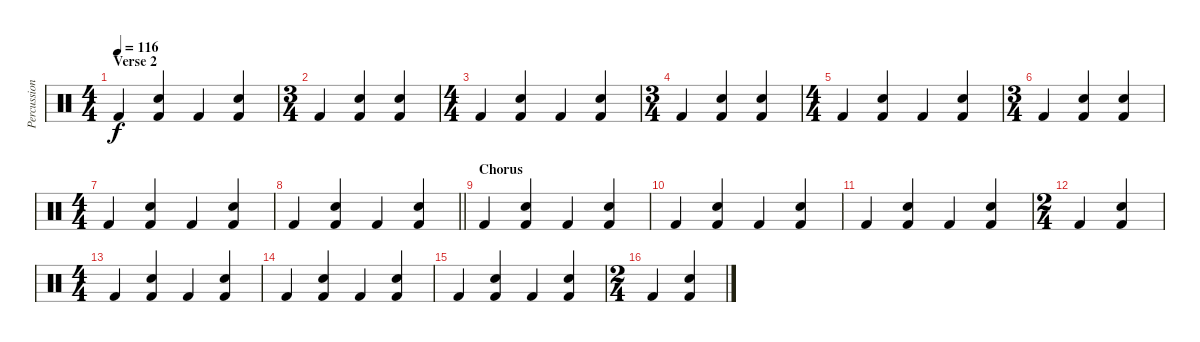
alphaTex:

\track ("Percussion" "Percussion") {instrument percussion}
\staff {score}
\articulation defaults
\ts (4 4)
\section ("" "Verse 2")
\tempo 116
\clef neutral
\ks c "Kick (hit) 2".4{dy f}
("Hand Clap (hit)" "Kick (hit) 2").4 "Kick (hit) 2".4 ("Hand Clap (hit)" "Kick (hit) 2").4 |
\ts (3 4)
"Kick (hit) 2".4 ("Hand Clap (hit)" "Kick (hit) 2").4 ("Hand Clap (hit)" "Kick (hit) 2").4 |
\ts (4 4)
"Kick (hit) 2".4 ("Hand Clap (hit)" "Kick (hit) 2").4 "Kick (hit) 2".4 ("Hand Clap (hit)" "Kick (hit) 2").4 |
\ts (3 4)
"Kick (hit) 2".4 ("Hand Clap (hit)" "Kick (hit) 2").4 ("Hand Clap (hit)" "Kick (hit) 2").4 |
\ts (4 4)
"Kick (hit) 2".4 ("Hand Clap (hit)" "Kick (hit) 2").4 "Kick (hit) 2".4 ("Hand Clap (hit)" "Kick (hit) 2").4 |
\ts (3 4)
"Kick (hit) 2".4 ("Hand Clap (hit)" "Kick (hit) 2").4 ("Hand Clap (hit)" "Kick (hit) 2").4 |
\ts (4 4)
"Kick (hit) 2".4 ("Hand Clap (hit)" "Kick (hit) 2").4 "Kick (hit) 2".4 ("Hand Clap (hit)" "Kick (hit) 2").4 |
\barLineRight lightlight "Kick (hit) 2".4
("Hand Clap (hit)" "Kick (hit) 2").4 "Kick (hit) 2".4 ("Hand Clap (hit)" "Kick (hit) 2").4 |
\section ("" "Chorus")
"Kick (hit) 2".4 ("Hand Clap (hit)" "Kick (hit) 2").4 "Kick (hit) 2".4 ("Hand Clap (hit)" "Kick (hit) 2").4 |
"Kick (hit) 2".4 ("Hand Clap (hit)" "Kick (hit) 2").4 "Kick (hit) 2".4 ("Hand Clap (hit)" "Kick (hit) 2").4 |
"Kick (hit) 2".4 ("Hand Clap (hit)" "Kick (hit) 2").4 "Kick (hit) 2".4 ("Hand Clap (hit)" "Kick (hit) 2").4 |
\ts (2 4)
"Kick (hit) 2".4 ("Hand Clap (hit)" "Kick (hit) 2").4 |
\ts (4 4)
"Kick (hit) 2".4 ("Hand Clap (hit)" "Kick (hit) 2").4 "Kick (hit) 2".4 ("Hand Clap (hit)" "Kick (hit) 2").4 |
"Kick (hit) 2".4 ("Hand Clap (hit)" "Kick (hit) 2").4 "Kick (hit) 2".4 ("Hand Clap (hit)" "Kick (hit) 2").4 |
"Kick (hit) 2".4 ("Hand Clap (hit)" "Kick (hit) 2").4 "Kick (hit) 2".4 ("Hand Clap (hit)" "Kick (hit) 2").4 |
\ts (2 4)
"Kick (hit) 2".4 ("Hand Clap (hit)" "Kick (hit) 2").4
